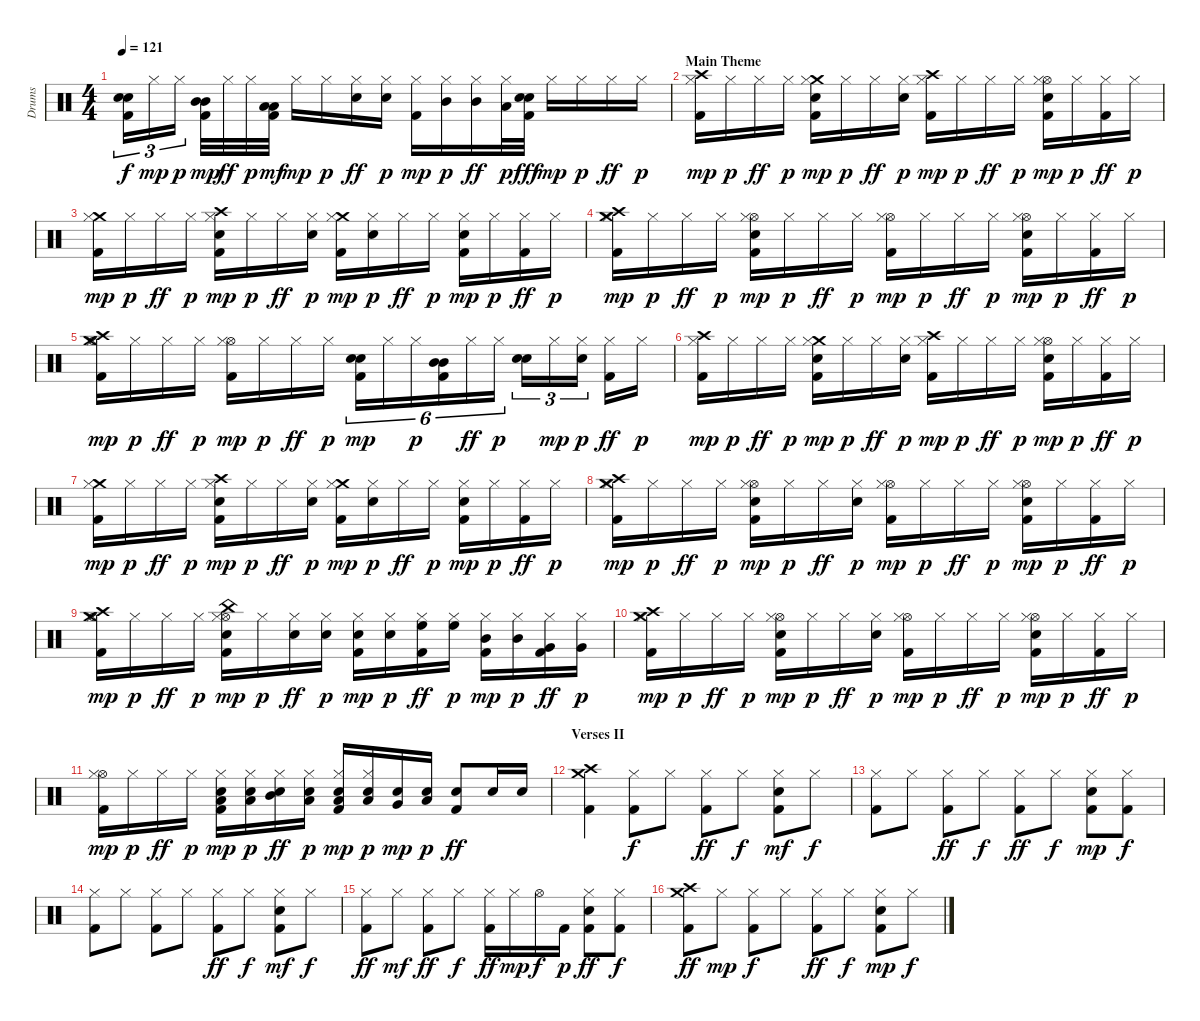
\track ("Drums" "Drums") {instrument percussion}
\staff {score}
\articulation defaults
\ts (4 4)
\tempo 121
\clef neutral
\ks c
("Electric Snare (hit)" "Kick (hit) 2" "Snare (hit) 2").16{tu (3 2) dy f} "Hi-Hat (closed)".16{tu (3 2) dy mp} "Hi-Hat (closed)".16{tu (3 2) dy p} ("Mid Tom (hit)" "Mid Tom (hit)" "Kick (hit) 2").32{dy mp} "Hi-Hat (closed)".32{dy ff} "Hi-Hat (closed)".32{dy p} ("Low Tom (hit)" "Low Tom (hit)" "Kick (hit) 2").32{dy mf} "Hi-Hat (closed)".16{dy mp} "Hi-Hat (closed)".16{dy p} ("Snare (hit) 2" "Hi-Hat (closed)").16{dy ff} ("Snare (hit) 2" "Hi-Hat (closed)").16{dy p} ("Kick (hit) 2" "Hi-Hat (closed)").16{dy mp} ("Mid Tom (hit)" "Hi-Hat (closed)").16{dy p} ("Mid Tom (hit)" "Hi-Hat (closed)").16{dy ff} ("Low Tom (hit)" "Hi-Hat (closed)").32{dy p} ("Electric Snare (hit)" "Snare (hit) 2" "Kick (hit) 2").32{dy fff} "Hi-Hat (closed)".16{dy mp} "Hi-Hat (closed)".16{dy p} "Hi-Hat (closed)".16{dy ff} "Hi-Hat (closed)".16{dy p} |
\section ("" "Main Theme")
("Crash high (hit)" "Kick (hit) 2" "Hi-Hat (closed)").16{dy mp} "Hi-Hat (closed)".16{dy p} "Hi-Hat (closed)".16{dy ff} "Hi-Hat (closed)".16{dy p} ("Crash medium (hit)" "Kick (hit) 2" "Electric Snare (hit)" "Hi-Hat (closed)").16{dy mp} "Hi-Hat (closed)".16{dy p} "Hi-Hat (closed)".16{dy ff} ("Electric Snare (hit)" "Hi-Hat (closed)").16{dy p} ("Crash high (hit)" "Kick (hit) 2" "Hi-Hat (closed)").16{dy mp} "Hi-Hat (closed)".16{dy p} "Hi-Hat (closed)".16{dy ff} "Hi-Hat (closed)".16{dy p} ("Kick (hit) 2" "Hi-Hat (open)" "Electric Snare (hit)" "Hi-Hat (closed)").16{dy mp} "Hi-Hat (closed)".16{dy p} ("Kick (hit) 2" "Hi-Hat (closed)").16{dy ff} "Hi-Hat (closed)".16{dy p} |
("Crash medium (hit)" "Kick (hit) 2" "Hi-Hat (closed)").16{dy mp} "Hi-Hat (closed)".16{dy p} "Hi-Hat (closed)".16{dy ff} "Hi-Hat (closed)".16{dy p} ("Crash high (hit)" "Kick (hit) 2" "Electric Snare (hit)" "Hi-Hat (closed)").16{dy mp} "Hi-Hat (closed)".16{dy p} "Hi-Hat (closed)".16{dy ff} ("Electric Snare (hit)" "Hi-Hat (closed)").16{dy p} ("Crash medium (hit)" "Kick (hit) 2" "Hi-Hat (closed)").16{dy mp} ("Electric Snare (hit)" "Hi-Hat (closed)").16{dy p} "Hi-Hat (closed)".16{dy ff} "Hi-Hat (closed)".16{dy p} ("Kick (hit) 2" "Electric Snare (hit)" "Hi-Hat (closed)").16{dy mp} "Hi-Hat (closed)".16{dy p} ("Kick (hit) 2" "Hi-Hat (closed)").16{dy ff} "Hi-Hat (closed)".16{dy p} |
("Kick (hit) 2" "Crash high (hit)" "Crash medium (hit)" "Hi-Hat (closed)").16{dy mp} "Hi-Hat (closed)".16{dy p} "Hi-Hat (closed)".16{dy ff} "Hi-Hat (closed)".16{dy p} ("Hi-Hat (open)" "Kick (hit) 2" "Electric Snare (hit)" "Hi-Hat (closed)").16{dy mp} "Hi-Hat (closed)".16{dy p} "Hi-Hat (closed)".16{dy ff} "Hi-Hat (closed)".16{dy p} ("Hi-Hat (open)" "Kick (hit) 2" "Hi-Hat (closed)").16{dy mp} "Hi-Hat (closed)".16{dy p} "Hi-Hat (closed)".16{dy ff} "Hi-Hat (closed)".16{dy p} ("Hi-Hat (open)" "Kick (hit) 2" "Electric Snare (hit)" "Hi-Hat (closed)").16{dy mp} "Hi-Hat (closed)".16{dy p} ("Kick (hit) 2" "Hi-Hat (closed)").16{dy ff} "Hi-Hat (closed)".16{dy p} |
("Hi-Hat (open)" "Kick (hit) 2" "Crash high (hit)" "Crash medium (hit)" "Hi-Hat (closed)").16{dy mp} "Hi-Hat (closed)".16{dy p} "Hi-Hat (closed)".16{dy ff} "Hi-Hat (closed)".16{dy p} ("Hi-Hat (open)" "Kick (hit) 2" "Hi-Hat (closed)").16{dy mp} "Hi-Hat (closed)".16{dy p} "Hi-Hat (closed)".16{dy ff} "Hi-Hat (closed)".16{dy p} ("Electric Snare (hit)" "Snare (hit) 2" "Kick (hit) 2").16{tu (6 4) dy mp} "Hi-Hat (closed)".16{tu (6 4)} "Hi-Hat (closed)".16{tu (6 4) dy p} ("Mid Tom (hit)" "Mid Tom (hit)" "Kick (hit) 2").16{tu (6 4)} "Hi-Hat (closed)".16{tu (6 4) dy ff} "Hi-Hat (closed)".16{tu (6 4) dy p} ("Electric Snare (hit)" "Snare (hit) 2").16{tu (3 2)} "Hi-Hat (closed)".16{tu (3 2) dy mp} ("Electric Snare (hit)" "Hi-Hat (closed)").16{tu (3 2) dy p} ("Kick (hit) 2" "Hi-Hat (closed)").16{dy ff} "Hi-Hat (closed)".16{dy p} |
("Crash high (hit)" "Kick (hit) 2" "Hi-Hat (closed)").16{dy mp} "Hi-Hat (closed)".16{dy p} "Hi-Hat (closed)".16{dy ff} "Hi-Hat (closed)".16{dy p} ("Kick (hit) 2" "Crash medium (hit)" "Electric Snare (hit)" "Hi-Hat (closed)").16{dy mp} "Hi-Hat (closed)".16{dy p} "Hi-Hat (closed)".16{dy ff} ("Electric Snare (hit)" "Hi-Hat (closed)").16{dy p} ("Crash high (hit)" "Kick (hit) 2" "Hi-Hat (closed)").16{dy mp} "Hi-Hat (closed)".16{dy p} "Hi-Hat (closed)".16{dy ff} "Hi-Hat (closed)".16{dy p} ("Kick (hit) 2" "Hi-Hat (open)" "Electric Snare (hit)" "Hi-Hat (closed)").16{dy mp} "Hi-Hat (closed)".16{dy p} ("Kick (hit) 2" "Hi-Hat (closed)").16{dy ff} "Hi-Hat (closed)".16{dy p} |
("Kick (hit) 2" "Crash medium (hit)" "Hi-Hat (closed)").16{dy mp} "Hi-Hat (closed)".16{dy p} "Hi-Hat (closed)".16{dy ff} "Hi-Hat (closed)".16{dy p} ("Crash high (hit)" "Kick (hit) 2" "Electric Snare (hit)" "Hi-Hat (closed)").16{dy mp} "Hi-Hat (closed)".16{dy p} "Hi-Hat (closed)".16{dy ff} ("Electric Snare (hit)" "Hi-Hat (closed)").16{dy p} ("Kick (hit) 2" "Crash medium (hit)" "Hi-Hat (closed)").16{dy mp} ("Electric Snare (hit)" "Hi-Hat (closed)").16{dy p} "Hi-Hat (closed)".16{dy ff} "Hi-Hat (closed)".16{dy p} ("Kick (hit) 2" "Electric Snare (hit)" "Hi-Hat (closed)").16{dy mp} "Hi-Hat (closed)".16{dy p} ("Kick (hit) 2" "Hi-Hat (closed)").16{dy ff} "Hi-Hat (closed)".16{dy p} |
("Kick (hit) 2" "Crash high (hit)" "Crash medium (hit)" "Hi-Hat (closed)").16{dy mp} "Hi-Hat (closed)".16{dy p} "Hi-Hat (closed)".16{dy ff} "Hi-Hat (closed)".16{dy p} ("Hi-Hat (open)" "Kick (hit) 2" "Electric Snare (hit)" "Hi-Hat (closed)").16{dy mp} "Hi-Hat (closed)".16{dy p} "Hi-Hat (closed)".16{dy ff} ("Electric Snare (hit)" "Hi-Hat (closed)").16{dy p} ("Hi-Hat (open)" "Kick (hit) 2" "Hi-Hat (closed)").16{dy mp} "Hi-Hat (closed)".16{dy p} "Hi-Hat (closed)".16{dy ff} "Hi-Hat (closed)".16{dy p} ("Hi-Hat (open)" "Kick (hit) 2" "Electric Snare (hit)" "Hi-Hat (closed)").16{dy mp} "Hi-Hat (closed)".16{dy p} ("Kick (hit) 2" "Hi-Hat (closed)").16{dy ff} "Hi-Hat (closed)".16{dy p} |
("Hi-Hat (open)" "Kick (hit) 2" "Crash high (hit)" "Crash medium (hit)" "Hi-Hat (closed)").16{dy mp} "Hi-Hat (closed)".16{dy p} "Hi-Hat (closed)".16{dy ff} "Hi-Hat (closed)".16{dy p} ("Kick (hit) 2" "Hi-Hat (open)" "Electric Snare (hit)" "China (hit)" "Hi-Hat (closed)").16{dy mp} "Hi-Hat (closed)".16{dy p} ("Electric Snare (hit)" "Hi-Hat (closed)").16{dy ff} ("Electric Snare (hit)" "Hi-Hat (closed)").16{dy p} ("Snare (hit) 2" "Kick (hit) 2" "Hi-Hat (closed)").16{dy mp} ("Electric Snare (hit)" "Hi-Hat (closed)").16{dy p} ("High Floor Tom (hit)" "Kick (hit) 2" "Hi-Hat (closed)").16{dy ff} ("High Floor Tom (hit)" "Hi-Hat (closed)").16{dy p} ("Mid Tom (hit)" "Kick (hit) 2" "Hi-Hat (closed)").16{dy mp} ("Mid Tom (hit)" "Hi-Hat (closed)").16{dy p} ("Very Low Tom (hit)" "Kick (hit) 2" "Hi-Hat (closed)").16{dy ff} ("Very Low Tom (hit)" "Hi-Hat (closed)").16{dy p} |
("Kick (hit) 2" "Crash high (hit)" "Crash medium (hit)" "Hi-Hat (closed)").16{dy mp} "Hi-Hat (closed)".16{dy p} "Hi-Hat (closed)".16{dy ff} "Hi-Hat (closed)".16{dy p} ("Hi-Hat (open)" "Kick (hit) 2" "Electric Snare (hit)" "Hi-Hat (closed)").16{dy mp} "Hi-Hat (closed)".16{dy p} "Hi-Hat (closed)".16{dy ff} ("Electric Snare (hit)" "Hi-Hat (closed)").16{dy p} ("Hi-Hat (open)" "Kick (hit) 2" "Hi-Hat (closed)").16{dy mp} "Hi-Hat (closed)".16{dy p} "Hi-Hat (closed)".16{dy ff} "Hi-Hat (closed)".16{dy p} ("Hi-Hat (open)" "Kick (hit) 2" "Electric Snare (hit)" "Hi-Hat (closed)").16{dy mp} "Hi-Hat (closed)".16{dy p} ("Kick (hit) 2" "Hi-Hat (closed)").16{dy ff} "Hi-Hat (closed)".16{dy p} |
("Kick (hit) 2" "Hi-Hat (open)" "Hi-Hat (closed)").16{dy mp} "Hi-Hat (closed)".16{dy p} "Hi-Hat (closed)".16{dy ff} "Hi-Hat (closed)".16{dy p} ("Kick (hit) 2" "Low Tom (hit)" "Electric Snare (hit)" "Hi-Hat (closed)").16{dy mp} ("Low Tom (hit)" "Electric Snare (hit)" "Hi-Hat (closed)").16{dy p} ("Mid Tom (hit)" "Electric Snare (hit)" "Hi-Hat (closed)").16{dy ff} ("Low Tom (hit)" "Electric Snare (hit)" "Hi-Hat (closed)").16{dy p} ("Kick (hit) 2" "Low Tom (hit)" "Electric Snare (hit)" "Hi-Hat (closed)").16{dy mp} ("Low Tom (hit)" "Electric Snare (hit)" "Hi-Hat (closed)").16{dy p} ("Very Low Tom (hit)" "Electric Snare (hit)").16{dy mp} ("Low Tom (hit)" "Electric Snare (hit)").16{dy p} ("Kick (hit) 2" "Snare (hit) 2").8{dy ff} "Snare (hit) 2".16 "Electric Snare (hit)".16 |
\section ("" "Verses II")
("Kick (hit) 2" "Crash high (hit)" "Crash medium (hit)").4 ("Kick (hit) 2" "Hi-Hat (closed)").8{dy f} "Hi-Hat (closed)".8 ("Kick (hit) 2" "Hi-Hat (closed)").8{dy ff} "Hi-Hat (closed)".8{dy f} ("Kick (hit) 2" "Hi-Hat (closed)" "Electric Snare (hit)").8{dy mf} "Hi-Hat (closed)".8{dy f} |
("Kick (hit) 2" "Hi-Hat (closed)").8 "Hi-Hat (closed)".8 ("Kick (hit) 2" "Hi-Hat (closed)").8{dy ff} "Hi-Hat (closed)".8{dy f} ("Kick (hit) 2" "Hi-Hat (closed)").8{dy ff} "Hi-Hat (closed)".8{dy f} ("Kick (hit) 2" "Hi-Hat (closed)" "Electric Snare (hit)").8{dy mp} ("Kick (hit) 2" "Hi-Hat (closed)").8{dy f} |
("Kick (hit) 2" "Hi-Hat (closed)").8 "Hi-Hat (closed)".8 ("Kick (hit) 2" "Hi-Hat (closed)").8 "Hi-Hat (closed)".8 ("Kick (hit) 2" "Hi-Hat (closed)").8{dy ff} "Hi-Hat (closed)".8{dy f} ("Kick (hit) 2" "Hi-Hat (closed)" "Electric Snare (hit)").8{dy mf} "Hi-Hat (closed)".8{dy f} |
("Kick (hit) 2" "Hi-Hat (closed)").8{dy ff} "Hi-Hat (closed)".8{dy mf} ("Kick (hit) 2" "Hi-Hat (closed)").8{dy ff} "Hi-Hat (closed)".8{dy f} ("Kick (hit) 2" "Hi-Hat (closed)").16{dy ff} "Hi-Hat (closed)".16{dy mp} "Hi-Hat (open)".16{dy f} "Kick (hit) 2".16{dy p} ("Kick (hit) 2" "Hi-Hat (closed)" "Electric Snare (hit)").8{dy ff} ("Kick (hit) 2" "Hi-Hat (closed)").8{dy f} |
("Kick (hit) 2" "Crash high (hit)" "Crash medium (hit)").8{dy ff} "Hi-Hat (closed)".8{dy mp} ("Kick (hit) 2" "Hi-Hat (closed)").8{dy f} "Hi-Hat (closed)".8 ("Kick (hit) 2" "Hi-Hat (closed)").8{dy ff} "Hi-Hat (closed)".8{dy f} ("Kick (hit) 2" "Hi-Hat (closed)" "Electric Snare (hit)").8{dy mp} "Hi-Hat (closed)".8{dy f}
